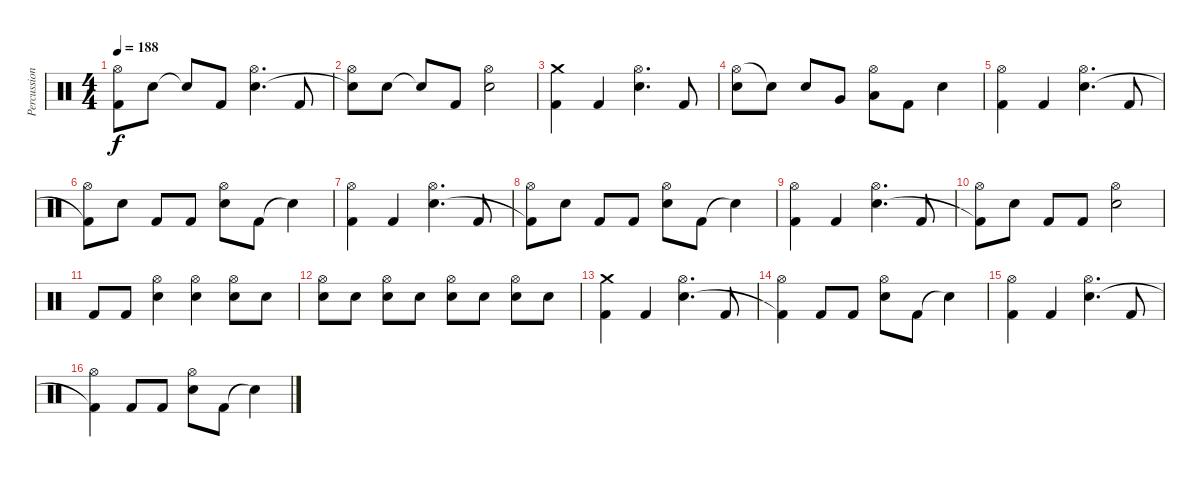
\track ("Percussion" "Percussion") {instrument percussion}
\staff {score}
\articulation defaults
\ts (4 4)
\tempo 188
\clef neutral
\ks c
("Hi-Hat (open)" "Kick (hit) 2").8{dy f} "Electric Snare (hit)".8 "Snare (hit)"{t}.8 "Kick (hit) 2".8 ("Hi-Hat (open)" "Electric Snare (hit)").4{d} "Kick (hit) 2".8 |
("Hi-Hat (open)" "Snare (hit)"{t}).8 "Electric Snare (hit)".8 "Snare (hit)"{t}.8 "Kick (hit) 2".8 ("Hi-Hat (open)" "Electric Snare (hit)").2 |
("Crash medium (hit)" "Kick (hit) 2").4 "Kick (hit) 2".4 ("Hi-Hat (open)" "Electric Snare (hit)").4{d} "Kick (hit) 2".8 |
("Hi-Hat (open)" "Electric Snare (hit)").8 "Electric Snare (hit)"{t}.8 "Electric Snare (hit)".8 "Very Low Tom (hit)".8 ("Hi-Hat (open)" "Low Floor Tom (hit)").8 "Kick (hit) 2".8 "Electric Snare (hit)".4 |
("Hi-Hat (open)" "Kick (hit) 2").4 "Kick (hit) 2".4 ("Hi-Hat (open)" "Electric Snare (hit)").4{d} "Kick (hit) 2".8 |
("Hi-Hat (open)" "Kick (hit) 2"{t}).8 "Electric Snare (hit)".8 "Kick (hit) 2".8 "Kick (hit) 2".8 ("Hi-Hat (open)" "Electric Snare (hit)").8 "Kick (hit) 2".8 "Snare (hit)"{t}.4 |
("Hi-Hat (open)" "Kick (hit) 2").4 "Kick (hit) 2".4 ("Hi-Hat (open)" "Electric Snare (hit)").4{d} "Kick (hit) 2".8 |
("Hi-Hat (open)" "Kick (hit) 2"{t}).8 "Electric Snare (hit)".8 "Kick (hit) 2".8 "Kick (hit) 2".8 ("Hi-Hat (open)" "Electric Snare (hit)").8 "Kick (hit) 2".8 "Snare (hit)"{t}.4 |
("Hi-Hat (open)" "Kick (hit) 2").4 "Kick (hit) 2".4 ("Hi-Hat (open)" "Electric Snare (hit)").4{d} "Kick (hit) 2".8 |
("Hi-Hat (open)" "Kick (hit) 2"{t}).8 "Electric Snare (hit)".8 "Kick (hit) 2".8 "Kick (hit) 2".8 ("Hi-Hat (open)" "Electric Snare (hit)").2 |
"Kick (hit) 2".8 "Kick (hit) 2".8 ("Hi-Hat (open)" "Electric Snare (hit)").4 ("Hi-Hat (open)" "Electric Snare (hit)").4 ("Hi-Hat (open)" "Electric Snare (hit)").8 "Electric Snare (hit)".8 |
("Hi-Hat (open)" "Electric Snare (hit)").8 "Electric Snare (hit)".8 ("Hi-Hat (open)" "Electric Snare (hit)").8 "Electric Snare (hit)".8 ("Hi-Hat (open)" "Electric Snare (hit)").8 "Electric Snare (hit)".8 ("Hi-Hat (open)" "Electric Snare (hit)").8 "Electric Snare (hit)".8 |
("Crash medium (hit)" "Kick (hit) 2").4 "Kick (hit) 2".4 ("Hi-Hat (open)" "Electric Snare (hit)").4{d} "Kick (hit) 2".8 |
("Hi-Hat (open)" "Kick (hit) 2"{t}).4 "Kick (hit) 2".8 "Kick (hit) 2".8 ("Hi-Hat (open)" "Electric Snare (hit)").8 "Kick (hit) 2".8 "Snare (hit)"{t}.4 |
("Hi-Hat (open)" "Kick (hit) 2").4 "Kick (hit) 2".4 ("Hi-Hat (open)" "Electric Snare (hit)").4{d} "Kick (hit) 2".8 |
("Hi-Hat (open)" "Kick (hit) 2"{t}).4 "Kick (hit) 2".8 "Kick (hit) 2".8 ("Hi-Hat (open)" "Electric Snare (hit)").8 "Kick (hit) 2".8 "Snare (hit)"{t}.4
